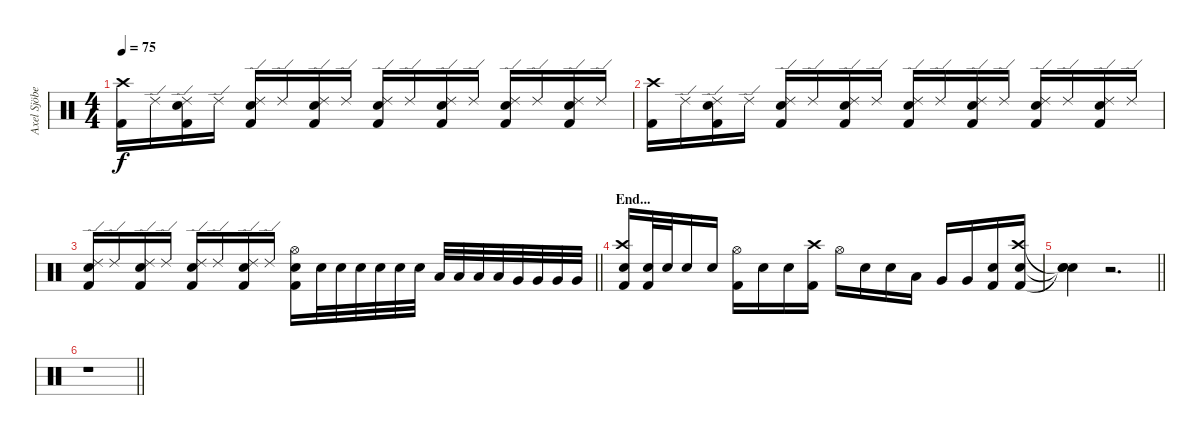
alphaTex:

\track ("Axel Sjöberg" "Axel Sjöbe") {instrument percussion}
\staff {score}
\articulation defaults
\ts (4 4)
\tempo 75
\clef neutral
\ks c
("Kick (hit) 2" "Crash high (hit)").16{dy f} "Ride (edge) 2".16 ("Kick (hit) 2" "Snare (hit) 2" "Ride (edge) 2").16 "Ride (edge) 2".16 ("Kick (hit) 2" "Snare (hit) 2" "Ride (edge) 2").16 "Ride (edge) 2".16 ("Kick (hit) 2" "Snare (hit) 2" "Ride (edge) 2").16 "Ride (edge) 2".16 ("Kick (hit) 2" "Snare (hit) 2" "Ride (edge) 2").16 "Ride (edge) 2".16 ("Kick (hit) 2" "Snare (hit) 2" "Ride (edge) 2").16 "Ride (edge) 2".16 ("Kick (hit) 2" "Snare (hit) 2" "Ride (edge) 2").16 "Ride (edge) 2".16 ("Kick (hit) 2" "Snare (hit) 2" "Ride (edge) 2").16 "Ride (edge) 2".16 |
("Kick (hit) 2" "Crash high (hit)").16 "Ride (edge) 2".16 ("Kick (hit) 2" "Snare (hit) 2" "Ride (edge) 2").16 "Ride (edge) 2".16 ("Kick (hit) 2" "Snare (hit) 2" "Ride (edge) 2").16 "Ride (edge) 2".16 ("Kick (hit) 2" "Snare (hit) 2" "Ride (edge) 2").16 "Ride (edge) 2".16 ("Kick (hit) 2" "Snare (hit) 2" "Ride (edge) 2").16 "Ride (edge) 2".16 ("Kick (hit) 2" "Snare (hit) 2" "Ride (edge) 2").16 "Ride (edge) 2".16 ("Kick (hit) 2" "Snare (hit) 2" "Ride (edge) 2").16 "Ride (edge) 2".16 ("Kick (hit) 2" "Snare (hit) 2" "Ride (edge) 2").16 "Ride (edge) 2".16 |
\barLineRight lightlight
("Kick (hit) 2" "Snare (hit) 2" "Ride (edge) 2").16 "Ride (edge) 2".16 ("Kick (hit) 2" "Snare (hit) 2" "Ride (edge) 2").16 "Ride (edge) 2".16 ("Kick (hit) 2" "Snare (hit) 2" "Ride (edge) 2").16 "Ride (edge) 2".16 ("Kick (hit) 2" "Snare (hit) 2" "Ride (edge) 2").16 "Ride (edge) 2".16 ("Kick (hit) 2" "Snare (hit) 2" "Hi-Hat (open)").16 "Snare (hit) 2".32 "Snare (hit) 2".32 "Snare (hit) 2".32 "Snare (hit) 2".32 "Snare (hit) 2".32 "Snare (hit) 2".32 "Low Tom (hit)".32 "Low Tom (hit)".32 "Low Tom (hit)".32 "Low Tom (hit)".32 "Very Low Tom (hit)".32 "Very Low Tom (hit)".32 "Very Low Tom (hit)".32 "Very Low Tom (hit)".32 |
\section ("" "End...")
("Kick (hit) 2" "Snare (hit) 2" "Crash high (hit)").16 ("Kick (hit) 2" "Snare (hit) 2").32 "Snare (hit) 2".32 "Snare (hit) 2".16 "Snare (hit) 2".16 ("Kick (hit) 2" "Hi-Hat (open)").16 "Snare (hit) 2".16 "Snare (hit) 2".16 ("Kick (hit) 2" "Crash high (hit)").16 "Hi-Hat (open)".16 "Snare (hit) 2".16 "Snare (hit) 2".16 "Low Tom (hit)".16 "Very Low Tom (hit)".16 "Very Low Tom (hit)".16 ("Kick (hit) 2" "Snare (hit) 2").16 ("Kick (hit) 2" "Snare (hit) 2" "Crash high (hit)").16 |
\barLineRight lightlight
("Snare (hit)"{t} "Snare (hit)"{t} "Snare (hit)"{t}).4 r.2{d} |
\barLineRight lightlight
r.1
